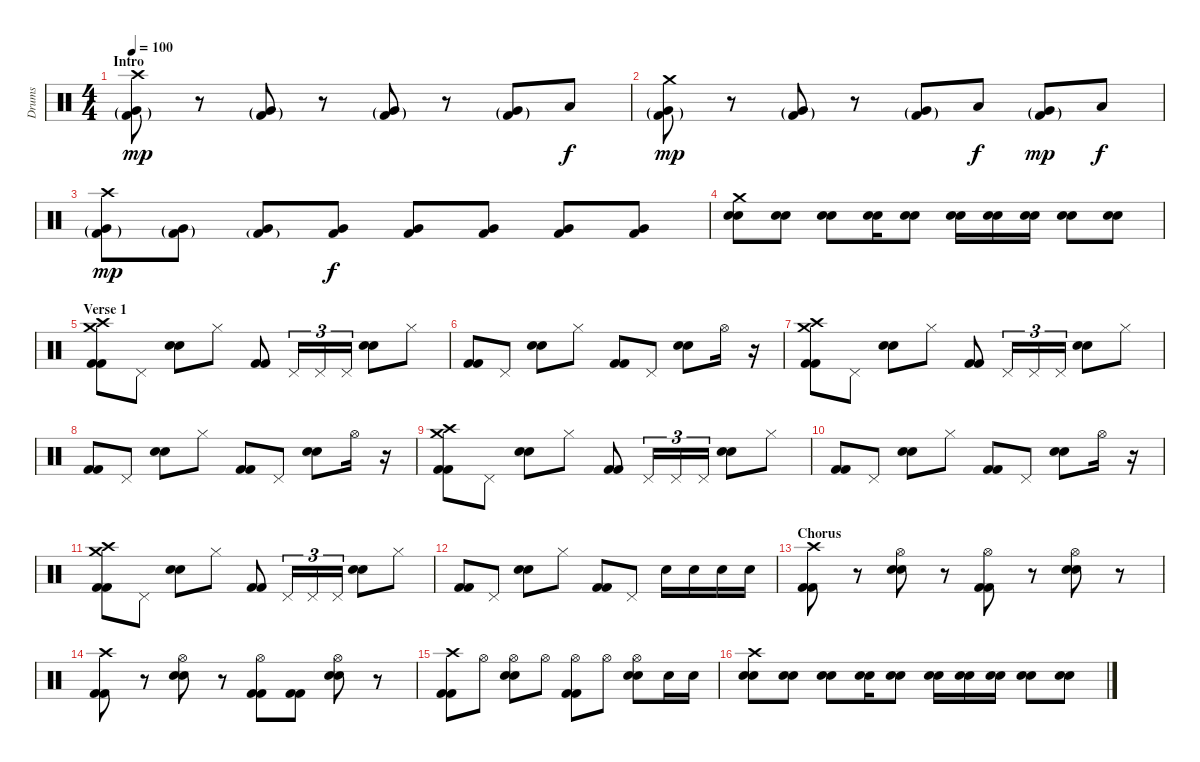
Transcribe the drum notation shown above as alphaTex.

\track ("Drums" "Drums") {instrument percussion}
\staff {score}
\articulation defaults
\ts (4 4)
\section ("" "Intro")
\tempo 100
\clef neutral
\ks c
("Crash high (hit)" "Very Low Tom (hit)"{g} "Kick (hit) 2"{g}).8{dy mp} r.8 ("Very Low Tom (hit)"{g} "Kick (hit) 2"{g}).8 r.8 ("Very Low Tom (hit)"{g} "Kick (hit) 2"{g}).8 r.8 ("Very Low Tom (hit)"{g} "Kick (hit) 2"{g}).8 "Low Tom (hit)".8{dy f} |
("Crash medium (hit)" "Very Low Tom (hit)"{g} "Kick (hit) 2"{g}).8{dy mp} r.8 ("Very Low Tom (hit)"{g} "Kick (hit) 2"{g}).8 r.8 ("Very Low Tom (hit)"{g} "Kick (hit) 2"{g}).8 "Low Tom (hit)".8{dy f} ("Very Low Tom (hit)"{g} "Kick (hit) 2"{g}).8{dy mp} "Low Tom (hit)".8{dy f} |
("Crash high (hit)" "Very Low Tom (hit)"{g} "Kick (hit) 2"{g}).8{dy mp} ("Very Low Tom (hit)"{g} "Kick (hit) 2"{g}).8 ("Very Low Tom (hit)" "Kick (hit) 2"{g}).8 ("Very Low Tom (hit)" "Kick (hit) 2").8{dy f} ("Very Low Tom (hit)" "Kick (hit) 2").8 ("Very Low Tom (hit)" "Kick (hit) 2").8 ("Very Low Tom (hit)" "Kick (hit) 2").8 ("Very Low Tom (hit)" "Kick (hit) 2").8 |
("Crash medium (hit)" "Electric Snare (hit)" "Electric Snare (hit)").8 ("Electric Snare (hit)" "Electric Snare (hit)").8 ("Electric Snare (hit)" "Electric Snare (hit)").8 ("Electric Snare (hit)" "Electric Snare (hit)").16 ("Electric Snare (hit)" "Electric Snare (hit)").8 ("Electric Snare (hit)" "Electric Snare (hit)").16 ("Electric Snare (hit)" "Electric Snare (hit)").16 ("Electric Snare (hit)" "Electric Snare (hit)").16 ("Electric Snare (hit)" "Electric Snare (hit)").8 ("Electric Snare (hit)" "Electric Snare (hit)").8 |
\section ("" "Verse 1")
("Crash high (hit)" "Crash medium (hit)" "Kick (hit) 2" "Kick (hit) 2").8 "Pedal Hi-Hat (hit)".8 ("Electric Snare (hit)" "Electric Snare (hit)").8 "Hi-Hat (closed)".8 ("Kick (hit) 2" "Kick (hit) 2").8 "Pedal Hi-Hat (hit)".16{tu (3 2)} "Pedal Hi-Hat (hit)".16{tu (3 2)} "Pedal Hi-Hat (hit)".16{tu (3 2)} ("Electric Snare (hit)" "Electric Snare (hit)").8 "Hi-Hat (closed)".8 |
("Kick (hit) 2" "Kick (hit) 2").8 "Pedal Hi-Hat (hit)".8 ("Electric Snare (hit)" "Electric Snare (hit)").8 "Hi-Hat (closed)".8 ("Kick (hit) 2" "Kick (hit) 2").8 "Pedal Hi-Hat (hit)".8 ("Electric Snare (hit)" "Electric Snare (hit)").8 "Hi-Hat (open)".16 r.16 |
("Crash high (hit)" "Crash medium (hit)" "Kick (hit) 2" "Kick (hit) 2").8 "Pedal Hi-Hat (hit)".8 ("Electric Snare (hit)" "Electric Snare (hit)").8 "Hi-Hat (closed)".8 ("Kick (hit) 2" "Kick (hit) 2").8 "Pedal Hi-Hat (hit)".16{tu (3 2)} "Pedal Hi-Hat (hit)".16{tu (3 2)} "Pedal Hi-Hat (hit)".16{tu (3 2)} ("Electric Snare (hit)" "Electric Snare (hit)").8 "Hi-Hat (closed)".8 |
("Kick (hit) 2" "Kick (hit) 2").8 "Pedal Hi-Hat (hit)".8 ("Electric Snare (hit)" "Electric Snare (hit)").8 "Hi-Hat (closed)".8 ("Kick (hit) 2" "Kick (hit) 2").8 "Pedal Hi-Hat (hit)".8 ("Electric Snare (hit)" "Electric Snare (hit)").8 "Hi-Hat (open)".16 r.16 |
("Crash high (hit)" "Crash medium (hit)" "Kick (hit) 2" "Kick (hit) 2").8 "Pedal Hi-Hat (hit)".8 ("Electric Snare (hit)" "Electric Snare (hit)").8 "Hi-Hat (closed)".8 ("Kick (hit) 2" "Kick (hit) 2").8 "Pedal Hi-Hat (hit)".16{tu (3 2)} "Pedal Hi-Hat (hit)".16{tu (3 2)} "Pedal Hi-Hat (hit)".16{tu (3 2)} ("Electric Snare (hit)" "Electric Snare (hit)").8 "Hi-Hat (closed)".8 |
("Kick (hit) 2" "Kick (hit) 2").8 "Pedal Hi-Hat (hit)".8 ("Electric Snare (hit)" "Electric Snare (hit)").8 "Hi-Hat (closed)".8 ("Kick (hit) 2" "Kick (hit) 2").8 "Pedal Hi-Hat (hit)".8 ("Electric Snare (hit)" "Electric Snare (hit)").8 "Hi-Hat (open)".16 r.16 |
("Crash high (hit)" "Crash medium (hit)" "Kick (hit) 2" "Kick (hit) 2").8 "Pedal Hi-Hat (hit)".8 ("Electric Snare (hit)" "Electric Snare (hit)").8 "Hi-Hat (closed)".8 ("Kick (hit) 2" "Kick (hit) 2").8 "Pedal Hi-Hat (hit)".16{tu (3 2)} "Pedal Hi-Hat (hit)".16{tu (3 2)} "Pedal Hi-Hat (hit)".16{tu (3 2)} ("Electric Snare (hit)" "Electric Snare (hit)").8 "Hi-Hat (closed)".8 |
("Kick (hit) 2" "Kick (hit) 2").8 "Pedal Hi-Hat (hit)".8 ("Electric Snare (hit)" "Electric Snare (hit)").8 "Hi-Hat (closed)".8 ("Kick (hit) 2" "Kick (hit) 2").8 "Pedal Hi-Hat (hit)".8 "Electric Snare (hit)".16 "Electric Snare (hit)".16 "Electric Snare (hit)".16 "Electric Snare (hit)".16 |
\section ("" "Chorus")
("Crash high (hit)" "Kick (hit) 2" "Kick (hit) 2").8 r.8 ("Hi-Hat (open)" "Electric Snare (hit)" "Electric Snare (hit)").8 r.8 ("Hi-Hat (open)" "Kick (hit) 2" "Kick (hit) 2").8 r.8 ("Hi-Hat (open)" "Electric Snare (hit)" "Electric Snare (hit)").8 r.8 |
("Crash high (hit)" "Kick (hit) 2" "Kick (hit) 2").8 r.8 ("Hi-Hat (open)" "Electric Snare (hit)" "Electric Snare (hit)").8 r.8 ("Hi-Hat (open)" "Kick (hit) 2" "Kick (hit) 2").8 ("Kick (hit) 2" "Kick (hit) 2").8 ("Hi-Hat (open)" "Electric Snare (hit)" "Electric Snare (hit)").8 r.8 |
("Crash high (hit)" "Kick (hit) 2" "Kick (hit) 2").8 "Hi-Hat (open)".8 ("Hi-Hat (open)" "Electric Snare (hit)" "Electric Snare (hit)").8 "Hi-Hat (open)".8 ("Hi-Hat (open)" "Kick (hit) 2" "Kick (hit) 2").8 "Hi-Hat (open)".8 ("Hi-Hat (open)" "Electric Snare (hit)" "Electric Snare (hit)").8 "Electric Snare (hit)".16 "Electric Snare (hit)".16 |
("Crash high (hit)" "Electric Snare (hit)" "Electric Snare (hit)").8 ("Electric Snare (hit)" "Electric Snare (hit)").8 ("Electric Snare (hit)" "Electric Snare (hit)").8 ("Electric Snare (hit)" "Electric Snare (hit)").16 ("Electric Snare (hit)" "Electric Snare (hit)").8 ("Electric Snare (hit)" "Electric Snare (hit)").16 ("Electric Snare (hit)" "Electric Snare (hit)").16 ("Electric Snare (hit)" "Electric Snare (hit)").16 ("Electric Snare (hit)" "Electric Snare (hit)").8 ("Electric Snare (hit)" "Electric Snare (hit)").8
